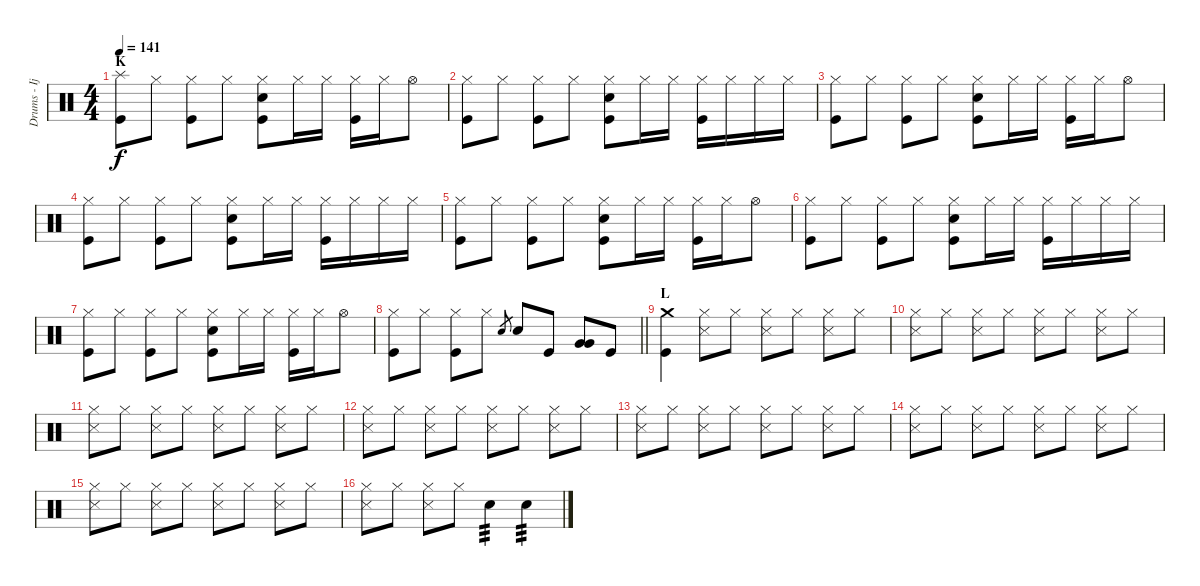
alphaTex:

\track ("Drums - Ijichi" "Drums - Ij") {instrument percussion}
\staff {score}
\articulation defaults
\ts (4 4)
\section ("" "K")
\tempo 141
\clef neutral
\ks c
("Splash (hit)" "Kick (hit)").8{dy f} "Hi-Hat (closed)".8 ("Hi-Hat (closed)" "Kick (hit)").8 "Hi-Hat (closed)".8 ("Hi-Hat (closed)" "Electric Snare (hit)" "Kick (hit)").8 "Hi-Hat (closed)".16 "Hi-Hat (closed)".16 ("Hi-Hat (closed)" "Kick (hit)").16 "Hi-Hat (closed)".16 "Hi-Hat (open)".8 |
("Hi-Hat (closed)" "Kick (hit)").8 "Hi-Hat (closed)".8 ("Hi-Hat (closed)" "Kick (hit)").8 "Hi-Hat (closed)".8 ("Hi-Hat (closed)" "Electric Snare (hit)" "Kick (hit)").8 "Hi-Hat (closed)".16 "Hi-Hat (closed)".16 ("Hi-Hat (closed)" "Kick (hit)").16 "Hi-Hat (closed)".16 "Hi-Hat (closed)".16 "Hi-Hat (closed)".16 |
("Hi-Hat (closed)" "Kick (hit)").8 "Hi-Hat (closed)".8 ("Hi-Hat (closed)" "Kick (hit)").8 "Hi-Hat (closed)".8 ("Hi-Hat (closed)" "Electric Snare (hit)" "Kick (hit)").8 "Hi-Hat (closed)".16 "Hi-Hat (closed)".16 ("Hi-Hat (closed)" "Kick (hit)").16 "Hi-Hat (closed)".16 "Hi-Hat (open)".8 |
("Hi-Hat (closed)" "Kick (hit)").8 "Hi-Hat (closed)".8 ("Hi-Hat (closed)" "Kick (hit)").8 "Hi-Hat (closed)".8 ("Hi-Hat (closed)" "Electric Snare (hit)" "Kick (hit)").8 "Hi-Hat (closed)".16 "Hi-Hat (closed)".16 ("Hi-Hat (closed)" "Kick (hit)").16 "Hi-Hat (closed)".16 "Hi-Hat (closed)".16 "Hi-Hat (closed)".16 |
("Hi-Hat (closed)" "Kick (hit)").8 "Hi-Hat (closed)".8 ("Hi-Hat (closed)" "Kick (hit)").8 "Hi-Hat (closed)".8 ("Hi-Hat (closed)" "Electric Snare (hit)" "Kick (hit)").8 "Hi-Hat (closed)".16 "Hi-Hat (closed)".16 ("Hi-Hat (closed)" "Kick (hit)").16 "Hi-Hat (closed)".16 "Hi-Hat (open)".8 |
("Hi-Hat (closed)" "Kick (hit)").8 "Hi-Hat (closed)".8 ("Hi-Hat (closed)" "Kick (hit)").8 "Hi-Hat (closed)".8 ("Hi-Hat (closed)" "Electric Snare (hit)" "Kick (hit)").8 "Hi-Hat (closed)".16 "Hi-Hat (closed)".16 ("Hi-Hat (closed)" "Kick (hit)").16 "Hi-Hat (closed)".16 "Hi-Hat (closed)".16 "Hi-Hat (closed)".16 |
("Hi-Hat (closed)" "Kick (hit)").8 "Hi-Hat (closed)".8 ("Hi-Hat (closed)" "Kick (hit)").8 "Hi-Hat (closed)".8 ("Hi-Hat (closed)" "Electric Snare (hit)" "Kick (hit)").8 "Hi-Hat (closed)".16 "Hi-Hat (closed)".16 ("Hi-Hat (closed)" "Kick (hit)").16 "Hi-Hat (closed)".16 "Hi-Hat (open)".8 |
\barLineRight lightlight
("Hi-Hat (closed)" "Kick (hit)").8 "Hi-Hat (closed)".8 ("Hi-Hat (closed)" "Kick (hit)").8 "Hi-Hat (closed)".8 "Electric Snare (hit)".8{gr} "Electric Snare (hit)".8 "Kick (hit)".8 ("Very Low Tom (hit)" "Very Low Tom (hit)").8 "Kick (hit)".8 |
\section ("" "L")
("Crash medium (hit)" "Kick (hit)").4 ("Hi-Hat (closed)" "Snare (side stick) 3").8 "Hi-Hat (closed)".8 ("Hi-Hat (closed)" "Snare (side stick) 3").8 "Hi-Hat (closed)".8 ("Hi-Hat (closed)" "Snare (side stick) 3").8 "Hi-Hat (closed)".8 |
("Hi-Hat (closed)" "Snare (side stick) 3").8 "Hi-Hat (closed)".8 ("Hi-Hat (closed)" "Snare (side stick) 3").8 "Hi-Hat (closed)".8 ("Hi-Hat (closed)" "Snare (side stick) 3").8 "Hi-Hat (closed)".8 ("Hi-Hat (closed)" "Snare (side stick) 3").8 "Hi-Hat (closed)".8 |
("Hi-Hat (closed)" "Snare (side stick) 3").8 "Hi-Hat (closed)".8 ("Hi-Hat (closed)" "Snare (side stick) 3").8 "Hi-Hat (closed)".8 ("Hi-Hat (closed)" "Snare (side stick) 3").8 "Hi-Hat (closed)".8 ("Hi-Hat (closed)" "Snare (side stick) 3").8 "Hi-Hat (closed)".8 |
("Hi-Hat (closed)" "Snare (side stick) 3").8 "Hi-Hat (closed)".8 ("Hi-Hat (closed)" "Snare (side stick) 3").8 "Hi-Hat (closed)".8 ("Hi-Hat (closed)" "Snare (side stick) 3").8 "Hi-Hat (closed)".8 ("Hi-Hat (closed)" "Snare (side stick) 3").8 "Hi-Hat (closed)".8 |
("Hi-Hat (closed)" "Snare (side stick) 3").8 "Hi-Hat (closed)".8 ("Hi-Hat (closed)" "Snare (side stick) 3").8 "Hi-Hat (closed)".8 ("Hi-Hat (closed)" "Snare (side stick) 3").8 "Hi-Hat (closed)".8 ("Hi-Hat (closed)" "Snare (side stick) 3").8 "Hi-Hat (closed)".8 |
("Hi-Hat (closed)" "Snare (side stick) 3").8 "Hi-Hat (closed)".8 ("Hi-Hat (closed)" "Snare (side stick) 3").8 "Hi-Hat (closed)".8 ("Hi-Hat (closed)" "Snare (side stick) 3").8 "Hi-Hat (closed)".8 ("Hi-Hat (closed)" "Snare (side stick) 3").8 "Hi-Hat (closed)".8 |
("Hi-Hat (closed)" "Snare (side stick) 3").8 "Hi-Hat (closed)".8 ("Hi-Hat (closed)" "Snare (side stick) 3").8 "Hi-Hat (closed)".8 ("Hi-Hat (closed)" "Snare (side stick) 3").8 "Hi-Hat (closed)".8 ("Hi-Hat (closed)" "Snare (side stick) 3").8 "Hi-Hat (closed)".8 |
("Hi-Hat (closed)" "Snare (side stick) 3").8 "Hi-Hat (closed)".8 ("Hi-Hat (closed)" "Snare (side stick) 3").8 "Hi-Hat (closed)".8 "Electric Snare (hit)".4{tp 3} "Electric Snare (hit)".4{tp 3}
